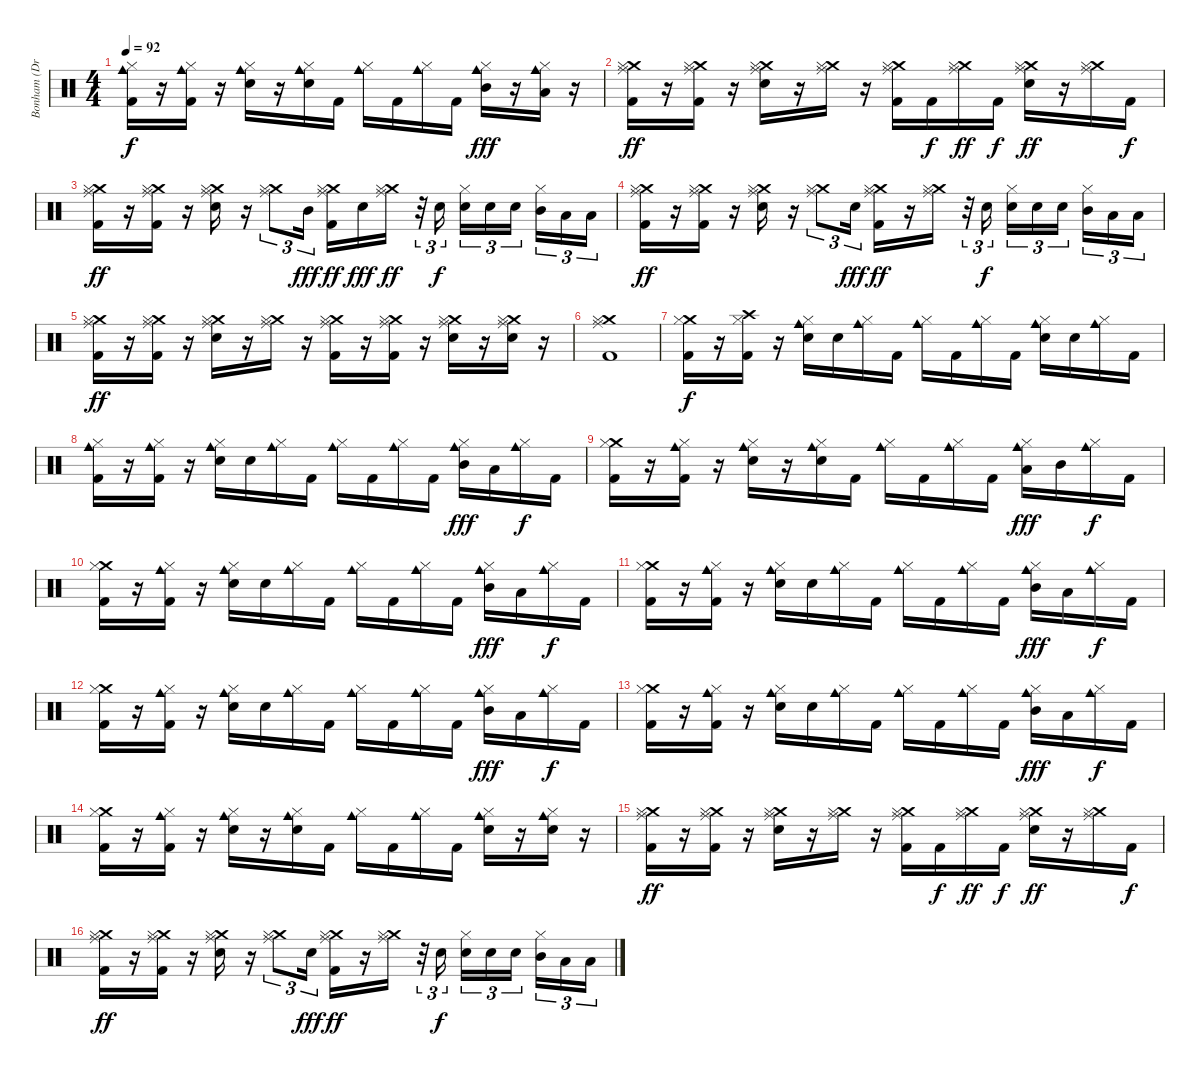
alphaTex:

\track ("Bonham (Drums)" "Bonham (Dr") {instrument percussion}
\staff {score}
\articulation defaults
\ts (4 4)
\tempo 92
\clef neutral
\ks c
("Cowbell medium (hit)" "Hi-Hat (closed)" "Kick (hit) 2").16{dy f} r.16 ("Cowbell medium (hit)" "Hi-Hat (closed)" "Kick (hit) 2").16 r.16 ("Cowbell medium (hit)" "Hi-Hat (closed)" "Electric Snare (hit)").16 r.16 ("Cowbell medium (hit)" "Hi-Hat (closed)" "Electric Snare (hit)").16 "Kick (hit) 2".16 ("Cowbell medium (hit)" "Hi-Hat (closed)").16 "Kick (hit) 2".16 ("Cowbell medium (hit)" "Hi-Hat (closed)").16 "Kick (hit) 2".16 ("Cowbell medium (hit)" "Hi-Hat (closed)" "Mid Tom (hit)").16{dy fff} r.16 ("Cowbell medium (hit)" "Hi-Hat (closed)" "Low Tom (hit)").16 r.16 |
("Crash medium (hit)" "Hi-Hat (closed)" "Ride (middle)" "Kick (hit) 2").16{dy ff} r.16 ("Crash medium (hit)" "Hi-Hat (closed)" "Ride (middle)" "Kick (hit) 2").16 r.16 ("Crash medium (hit)" "Hi-Hat (closed)" "Electric Snare (hit)" "Ride (middle)").16 r.16 ("Crash medium (hit)" "Hi-Hat (closed)" "Ride (middle)").16 r.16 ("Crash medium (hit)" "Hi-Hat (closed)" "Ride (middle)" "Kick (hit) 2").16 "Kick (hit) 2".16{dy f} ("Crash medium (hit)" "Hi-Hat (closed)" "Ride (middle)").16{dy ff} "Kick (hit) 2".16{dy f} ("Crash medium (hit)" "Hi-Hat (closed)" "Electric Snare (hit)" "Ride (middle)").16{dy ff} r.16 ("Crash medium (hit)" "Hi-Hat (closed)" "Ride (middle)").16 "Kick (hit) 2".16{dy f} |
("Crash medium (hit)" "Hi-Hat (closed)" "Ride (middle)" "Kick (hit) 2").16{dy ff} r.16 ("Crash medium (hit)" "Hi-Hat (closed)" "Ride (middle)" "Kick (hit) 2").16 r.16 ("Crash medium (hit)" "Hi-Hat (closed)" "Electric Snare (hit)" "Ride (middle)").16 r.16 ("Crash medium (hit)" "Hi-Hat (closed)" "Ride (middle)").8{tu (3 2)} "Mid Tom (hit)".16{tu (3 2) dy fff} ("Crash medium (hit)" "Hi-Hat (closed)" "Ride (middle)" "Kick (hit) 2").16{dy ff} "Electric Snare (hit)".16{dy fff} ("Crash medium (hit)" "Hi-Hat (closed)" "Ride (middle)").16{dy ff} r.32{tu (3 2)} "Electric Snare (hit)".16{tu (3 2) dy f} ("Hi-Hat (closed)" "Electric Snare (hit)").16{tu (3 2)} "Electric Snare (hit)".16{tu (3 2)} "Electric Snare (hit)".16{tu (3 2)} ("Hi-Hat (closed)" "Mid Tom (hit)").16{tu (3 2)} "Low Tom (hit)".16{tu (3 2)} "Low Floor Tom (hit)".16{tu (3 2)} |
("Crash medium (hit)" "Hi-Hat (closed)" "Ride (middle)" "Kick (hit) 2").16{dy ff} r.16 ("Crash medium (hit)" "Hi-Hat (closed)" "Ride (middle)" "Kick (hit) 2").16 r.16 ("Crash medium (hit)" "Hi-Hat (closed)" "Electric Snare (hit)" "Ride (middle)").16 r.16 ("Crash medium (hit)" "Hi-Hat (closed)" "Ride (middle)").8{tu (3 2)} "Electric Snare (hit)".16{tu (3 2) dy fff} ("Crash medium (hit)" "Hi-Hat (closed)" "Ride (middle)" "Kick (hit) 2").16{dy ff} r.16 ("Crash medium (hit)" "Hi-Hat (closed)" "Ride (middle)").16 r.32{tu (3 2)} "Electric Snare (hit)".16{tu (3 2) dy f} ("Hi-Hat (closed)" "Electric Snare (hit)").16{tu (3 2)} "Electric Snare (hit)".16{tu (3 2)} "Electric Snare (hit)".16{tu (3 2)} ("Hi-Hat (closed)" "Mid Tom (hit)").16{tu (3 2)} "Low Tom (hit)".16{tu (3 2)} "Low Floor Tom (hit)".16{tu (3 2)} |
("Crash medium (hit)" "Hi-Hat (closed)" "Ride (middle)" "Kick (hit) 2").16{dy ff} r.16 ("Crash medium (hit)" "Hi-Hat (closed)" "Ride (middle)" "Kick (hit) 2").16 r.16 ("Crash medium (hit)" "Hi-Hat (closed)" "Electric Snare (hit)" "Ride (middle)").16 r.16 ("Crash medium (hit)" "Hi-Hat (closed)" "Ride (middle)").16 r.16 ("Crash medium (hit)" "Hi-Hat (closed)" "Ride (middle)" "Kick (hit) 2").16 r.16 ("Crash medium (hit)" "Hi-Hat (closed)" "Ride (middle)" "Kick (hit) 2").16 r.16 ("Crash medium (hit)" "Hi-Hat (closed)" "Electric Snare (hit)" "Ride (middle)").16 r.16 ("Crash medium (hit)" "Hi-Hat (closed)" "Electric Snare (hit)" "Ride (middle)").16 r.16 |
("Crash medium (hit)" "Hi-Hat (closed)" "Ride (middle)" "Kick (hit) 2").1 |
("Crash medium (hit)" "Hi-Hat (closed)" "Kick (hit) 2").16{dy f} r.16 ("Crash high (hit)" "Hi-Hat (closed)" "Kick (hit) 2").16 r.16 ("Cowbell medium (hit)" "Hi-Hat (closed)" "Electric Snare (hit)").16 "Electric Snare (hit)".16 ("Cowbell medium (hit)" "Hi-Hat (closed)").16 "Kick (hit) 2".16 ("Cowbell medium (hit)" "Hi-Hat (closed)").16 "Kick (hit) 2".16 ("Cowbell medium (hit)" "Hi-Hat (closed)").16 "Kick (hit) 2".16 ("Cowbell medium (hit)" "Hi-Hat (closed)" "Electric Snare (hit)").16 "Electric Snare (hit)".16 ("Cowbell medium (hit)" "Hi-Hat (closed)").16 "Kick (hit) 2".16 |
("Cowbell medium (hit)" "Hi-Hat (closed)" "Kick (hit) 2").16 r.16 ("Cowbell medium (hit)" "Hi-Hat (closed)" "Kick (hit) 2").16 r.16 ("Cowbell medium (hit)" "Hi-Hat (closed)" "Electric Snare (hit)").16 "Electric Snare (hit)".16 ("Cowbell medium (hit)" "Hi-Hat (closed)").16 "Kick (hit) 2".16 ("Cowbell medium (hit)" "Hi-Hat (closed)").16 "Kick (hit) 2".16 ("Cowbell medium (hit)" "Hi-Hat (closed)").16 "Kick (hit) 2".16 ("Cowbell medium (hit)" "Hi-Hat (closed)" "Mid Tom (hit)").16{dy fff} "Low Tom (hit)".16 ("Cowbell medium (hit)" "Hi-Hat (closed)").16{dy f} "Kick (hit) 2".16 |
("Crash medium (hit)" "Hi-Hat (closed)" "Kick (hit) 2").16 r.16 ("Cowbell medium (hit)" "Hi-Hat (closed)" "Kick (hit) 2").16 r.16 ("Cowbell medium (hit)" "Hi-Hat (closed)" "Electric Snare (hit)").16 r.16 ("Cowbell medium (hit)" "Hi-Hat (closed)" "Electric Snare (hit)").16 "Kick (hit) 2".16 ("Cowbell medium (hit)" "Hi-Hat (closed)").16 "Kick (hit) 2".16 ("Cowbell medium (hit)" "Hi-Hat (closed)").16 "Kick (hit) 2".16 ("Cowbell medium (hit)" "Hi-Hat (closed)" "Low Tom (hit)").16{dy fff} "Mid Tom (hit)".16 ("Cowbell medium (hit)" "Hi-Hat (closed)").16{dy f} "Kick (hit) 2".16 |
("Crash medium (hit)" "Hi-Hat (closed)" "Kick (hit) 2").16 r.16 ("Cowbell medium (hit)" "Hi-Hat (closed)" "Kick (hit) 2").16 r.16 ("Cowbell medium (hit)" "Hi-Hat (closed)" "Electric Snare (hit)").16 "Electric Snare (hit)".16 ("Cowbell medium (hit)" "Hi-Hat (closed)").16 "Kick (hit) 2".16 ("Cowbell medium (hit)" "Hi-Hat (closed)").16 "Kick (hit) 2".16 ("Cowbell medium (hit)" "Hi-Hat (closed)").16 "Kick (hit) 2".16 ("Cowbell medium (hit)" "Hi-Hat (closed)" "Mid Tom (hit)").16{dy fff} "Low Tom (hit)".16 ("Cowbell medium (hit)" "Hi-Hat (closed)").16{dy f} "Kick (hit) 2".16 |
("Crash medium (hit)" "Hi-Hat (closed)" "Kick (hit) 2").16 r.16 ("Cowbell medium (hit)" "Hi-Hat (closed)" "Kick (hit) 2").16 r.16 ("Cowbell medium (hit)" "Hi-Hat (closed)" "Electric Snare (hit)").16 "Electric Snare (hit)".16 ("Cowbell medium (hit)" "Hi-Hat (closed)").16 "Kick (hit) 2".16 ("Cowbell medium (hit)" "Hi-Hat (closed)").16 "Kick (hit) 2".16 ("Cowbell medium (hit)" "Hi-Hat (closed)").16 "Kick (hit) 2".16 ("Cowbell medium (hit)" "Hi-Hat (closed)" "Mid Tom (hit)").16{dy fff} "Low Tom (hit)".16 ("Cowbell medium (hit)" "Hi-Hat (closed)").16{dy f} "Kick (hit) 2".16 |
("Crash medium (hit)" "Hi-Hat (closed)" "Kick (hit) 2").16 r.16 ("Cowbell medium (hit)" "Hi-Hat (closed)" "Kick (hit) 2").16 r.16 ("Cowbell medium (hit)" "Hi-Hat (closed)" "Electric Snare (hit)").16 "Electric Snare (hit)".16 ("Cowbell medium (hit)" "Hi-Hat (closed)").16 "Kick (hit) 2".16 ("Cowbell medium (hit)" "Hi-Hat (closed)").16 "Kick (hit) 2".16 ("Cowbell medium (hit)" "Hi-Hat (closed)").16 "Kick (hit) 2".16 ("Cowbell medium (hit)" "Hi-Hat (closed)" "Mid Tom (hit)").16{dy fff} "Low Tom (hit)".16 ("Cowbell medium (hit)" "Hi-Hat (closed)").16{dy f} "Kick (hit) 2".16 |
("Crash medium (hit)" "Hi-Hat (closed)" "Kick (hit) 2").16 r.16 ("Cowbell medium (hit)" "Hi-Hat (closed)" "Kick (hit) 2").16 r.16 ("Cowbell medium (hit)" "Hi-Hat (closed)" "Electric Snare (hit)").16 "Electric Snare (hit)".16 ("Cowbell medium (hit)" "Hi-Hat (closed)").16 "Kick (hit) 2".16 ("Cowbell medium (hit)" "Hi-Hat (closed)").16 "Kick (hit) 2".16 ("Cowbell medium (hit)" "Hi-Hat (closed)").16 "Kick (hit) 2".16 ("Cowbell medium (hit)" "Hi-Hat (closed)" "Mid Tom (hit)").16{dy fff} "Low Tom (hit)".16 ("Cowbell medium (hit)" "Hi-Hat (closed)").16{dy f} "Kick (hit) 2".16 |
("Crash medium (hit)" "Hi-Hat (closed)" "Kick (hit) 2").16 r.16 ("Cowbell medium (hit)" "Hi-Hat (closed)" "Kick (hit) 2").16 r.16 ("Cowbell medium (hit)" "Hi-Hat (closed)" "Electric Snare (hit)").16 r.16 ("Cowbell medium (hit)" "Hi-Hat (closed)" "Electric Snare (hit)").16 "Kick (hit) 2".16 ("Cowbell medium (hit)" "Hi-Hat (closed)").16 "Kick (hit) 2".16 ("Cowbell medium (hit)" "Hi-Hat (closed)").16 "Kick (hit) 2".16 ("Cowbell medium (hit)" "Hi-Hat (closed)" "Electric Snare (hit)").16 r.16 ("Cowbell medium (hit)" "Hi-Hat (closed)" "Electric Snare (hit)").16 r.16 |
("Crash medium (hit)" "Hi-Hat (closed)" "Ride (middle)" "Kick (hit) 2").16{dy ff} r.16 ("Crash medium (hit)" "Hi-Hat (closed)" "Ride (middle)" "Kick (hit) 2").16 r.16 ("Crash medium (hit)" "Hi-Hat (closed)" "Electric Snare (hit)" "Ride (middle)").16 r.16 ("Crash medium (hit)" "Hi-Hat (closed)" "Ride (middle)").16 r.16 ("Crash medium (hit)" "Hi-Hat (closed)" "Ride (middle)" "Kick (hit) 2").16 "Kick (hit) 2".16{dy f} ("Crash medium (hit)" "Hi-Hat (closed)" "Ride (middle)").16{dy ff} "Kick (hit) 2".16{dy f} ("Crash medium (hit)" "Hi-Hat (closed)" "Electric Snare (hit)" "Ride (middle)").16{dy ff} r.16 ("Crash medium (hit)" "Hi-Hat (closed)" "Ride (middle)").16 "Kick (hit) 2".16{dy f} |
("Crash medium (hit)" "Hi-Hat (closed)" "Ride (middle)" "Kick (hit) 2").16{dy ff} r.16 ("Crash medium (hit)" "Hi-Hat (closed)" "Ride (middle)" "Kick (hit) 2").16 r.16 ("Crash medium (hit)" "Hi-Hat (closed)" "Electric Snare (hit)" "Ride (middle)").16 r.16 ("Crash medium (hit)" "Hi-Hat (closed)" "Ride (middle)").8{tu (3 2)} "Electric Snare (hit)".16{tu (3 2) dy fff} ("Crash medium (hit)" "Hi-Hat (closed)" "Ride (middle)" "Kick (hit) 2").16{dy ff} r.16 ("Crash medium (hit)" "Hi-Hat (closed)" "Ride (middle)").16 r.32{tu (3 2)} "Electric Snare (hit)".16{tu (3 2) dy f} ("Hi-Hat (closed)" "Electric Snare (hit)").16{tu (3 2)} "Electric Snare (hit)".16{tu (3 2)} "Electric Snare (hit)".16{tu (3 2)} ("Hi-Hat (closed)" "Mid Tom (hit)").16{tu (3 2)} "Low Tom (hit)".16{tu (3 2)} "Low Floor Tom (hit)".16{tu (3 2)}
